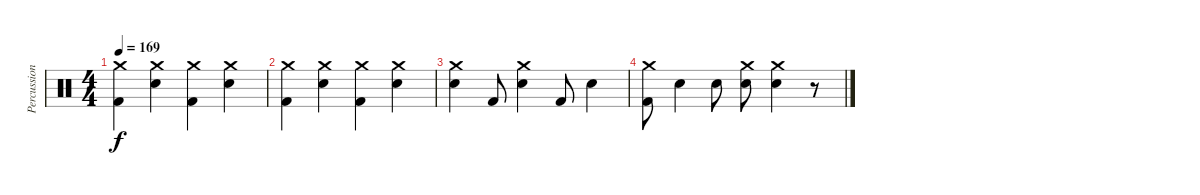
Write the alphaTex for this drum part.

\track ("Percussion" "Percussion") {instrument percussion}
\staff {score}
\articulation defaults
\ts (4 4)
\tempo 169
\clef neutral
\ks c
("Crash medium (hit)" "Kick (hit) 2").4{dy f} ("Snare (hit) 2" "Crash medium (hit)").4 ("Crash medium (hit)" "Kick (hit) 2").4 ("Snare (hit) 2" "Crash medium (hit)").4 |
("Crash medium (hit)" "Kick (hit) 2").4 ("Snare (hit) 2" "Crash medium (hit)").4 ("Crash medium (hit)" "Kick (hit) 2").4 ("Snare (hit) 2" "Crash medium (hit)").4 |
("Crash medium (hit)" "Snare (hit) 2").4 "Kick (hit) 2".8 ("Crash medium (hit)" "Snare (hit) 2").4 "Kick (hit) 2".8 "Snare (hit) 2".4 |
("Crash medium (hit)" "Kick (hit) 2").8 "Snare (hit) 2".4 "Snare (hit) 2".8 ("Crash medium (hit)" "Snare (hit) 2").8 ("Crash medium (hit)" "Snare (hit) 2").4 r.8
